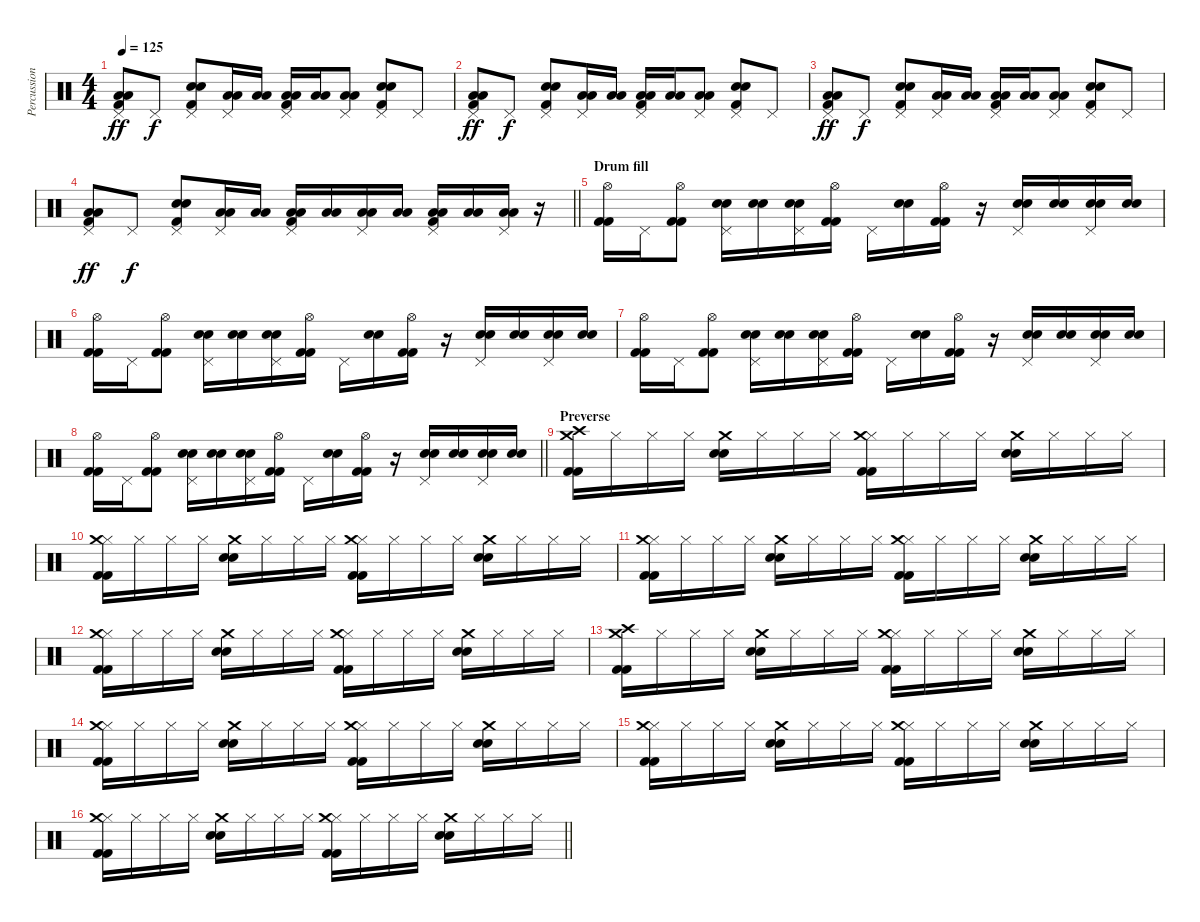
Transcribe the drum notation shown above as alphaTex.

\track ("Percussion2" "Percussion") {instrument percussion}
\staff {score}
\articulation defaults
\ts (4 4)
\tempo 125
\clef neutral
\ks c
("Pedal Hi-Hat (hit)" "Low Floor Tom (hit)" "Low Floor Tom (hit)" "Kick (hit) 2").8{dy ff} "Pedal Hi-Hat (hit)".8{dy f} ("Pedal Hi-Hat (hit)" "Electric Snare (hit)" "Electric Snare (hit)" "Kick (hit) 2").8 ("Pedal Hi-Hat (hit)" "Low Floor Tom (hit)" "Low Floor Tom (hit)").16 ("Low Tom (hit)" "Low Tom (hit)").16 ("Pedal Hi-Hat (hit)" "Low Floor Tom (hit)" "Low Floor Tom (hit)" "Kick (hit) 2").16 ("Low Floor Tom (hit)" "Low Floor Tom (hit)").16 ("Pedal Hi-Hat (hit)" "Low Floor Tom (hit)" "Low Floor Tom (hit)").8 ("Pedal Hi-Hat (hit)" "Electric Snare (hit)" "Electric Snare (hit)" "Kick (hit) 2").8 "Pedal Hi-Hat (hit)".8 |
("Pedal Hi-Hat (hit)" "Low Floor Tom (hit)" "Low Floor Tom (hit)" "Kick (hit) 2").8{dy ff} "Pedal Hi-Hat (hit)".8{dy f} ("Pedal Hi-Hat (hit)" "Electric Snare (hit)" "Electric Snare (hit)" "Kick (hit) 2").8 ("Pedal Hi-Hat (hit)" "Low Floor Tom (hit)" "Low Floor Tom (hit)").16 ("Low Tom (hit)" "Low Tom (hit)").16 ("Pedal Hi-Hat (hit)" "Low Floor Tom (hit)" "Low Floor Tom (hit)" "Kick (hit) 2").16 ("Low Floor Tom (hit)" "Low Floor Tom (hit)").16 ("Pedal Hi-Hat (hit)" "Low Floor Tom (hit)" "Low Floor Tom (hit)").8 ("Pedal Hi-Hat (hit)" "Electric Snare (hit)" "Electric Snare (hit)" "Kick (hit) 2").8 "Pedal Hi-Hat (hit)".8 |
("Pedal Hi-Hat (hit)" "Low Floor Tom (hit)" "Low Floor Tom (hit)" "Kick (hit) 2").8{dy ff} "Pedal Hi-Hat (hit)".8{dy f} ("Pedal Hi-Hat (hit)" "Electric Snare (hit)" "Electric Snare (hit)" "Kick (hit) 2").8 ("Pedal Hi-Hat (hit)" "Low Floor Tom (hit)" "Low Floor Tom (hit)").16 ("Low Tom (hit)" "Low Tom (hit)").16 ("Pedal Hi-Hat (hit)" "Low Floor Tom (hit)" "Low Floor Tom (hit)" "Kick (hit) 2").16 ("Low Floor Tom (hit)" "Low Floor Tom (hit)").16 ("Pedal Hi-Hat (hit)" "Low Floor Tom (hit)" "Low Floor Tom (hit)").8 ("Pedal Hi-Hat (hit)" "Electric Snare (hit)" "Electric Snare (hit)" "Kick (hit) 2").8 "Pedal Hi-Hat (hit)".8 |
\barLineRight lightlight
("Pedal Hi-Hat (hit)" "Low Floor Tom (hit)" "Low Floor Tom (hit)" "Kick (hit) 2").8{dy ff} "Pedal Hi-Hat (hit)".8{dy f} ("Pedal Hi-Hat (hit)" "Electric Snare (hit)" "Electric Snare (hit)" "Kick (hit) 2").8 ("Pedal Hi-Hat (hit)" "Low Floor Tom (hit)" "Low Floor Tom (hit)").16 ("Low Tom (hit)" "Low Tom (hit)").16 ("Pedal Hi-Hat (hit)" "Low Floor Tom (hit)" "Low Floor Tom (hit)" "Kick (hit) 2").16 ("Low Floor Tom (hit)" "Low Floor Tom (hit)").16 ("Pedal Hi-Hat (hit)" "Low Floor Tom (hit)" "Low Floor Tom (hit)").16 ("Low Tom (hit)" "Low Tom (hit)").16 ("Pedal Hi-Hat (hit)" "Low Floor Tom (hit)" "Low Floor Tom (hit)" "Kick (hit) 2").16 ("Low Floor Tom (hit)" "Low Floor Tom (hit)").16 ("Pedal Hi-Hat (hit)" "Low Floor Tom (hit)" "Low Floor Tom (hit)").16 r.16 |
\section ("" "Drum fill")
("Hi-Hat (open)" "Kick (hit) 2" "Kick (hit) 2").16 "Pedal Hi-Hat (hit)".16 ("Hi-Hat (open)" "Kick (hit) 2" "Kick (hit) 2").8 ("Pedal Hi-Hat (hit)" "Electric Snare (hit)" "Electric Snare (hit)").16 ("Electric Snare (hit)" "Electric Snare (hit)").16 ("Pedal Hi-Hat (hit)" "Electric Snare (hit)" "Electric Snare (hit)").16 ("Hi-Hat (open)" "Kick (hit) 2" "Kick (hit) 2").16 "Pedal Hi-Hat (hit)".16 ("Electric Snare (hit)" "Electric Snare (hit)").16 ("Hi-Hat (open)" "Kick (hit) 2" "Kick (hit) 2").16 r.16 ("Pedal Hi-Hat (hit)" "Electric Snare (hit)" "Electric Snare (hit)").16 ("Electric Snare (hit)" "Electric Snare (hit)").16 ("Pedal Hi-Hat (hit)" "Electric Snare (hit)" "Electric Snare (hit)").16 ("Electric Snare (hit)" "Electric Snare (hit)").16 |
("Hi-Hat (open)" "Kick (hit) 2" "Kick (hit) 2").16 "Pedal Hi-Hat (hit)".16 ("Hi-Hat (open)" "Kick (hit) 2" "Kick (hit) 2").8 ("Pedal Hi-Hat (hit)" "Electric Snare (hit)" "Electric Snare (hit)").16 ("Electric Snare (hit)" "Electric Snare (hit)").16 ("Pedal Hi-Hat (hit)" "Electric Snare (hit)" "Electric Snare (hit)").16 ("Hi-Hat (open)" "Kick (hit) 2" "Kick (hit) 2").16 "Pedal Hi-Hat (hit)".16 ("Electric Snare (hit)" "Electric Snare (hit)").16 ("Hi-Hat (open)" "Kick (hit) 2" "Kick (hit) 2").16 r.16 ("Pedal Hi-Hat (hit)" "Electric Snare (hit)" "Electric Snare (hit)").16 ("Electric Snare (hit)" "Electric Snare (hit)").16 ("Pedal Hi-Hat (hit)" "Electric Snare (hit)" "Electric Snare (hit)").16 ("Electric Snare (hit)" "Electric Snare (hit)").16 |
("Hi-Hat (open)" "Kick (hit) 2" "Kick (hit) 2").16 "Pedal Hi-Hat (hit)".16 ("Hi-Hat (open)" "Kick (hit) 2" "Kick (hit) 2").8 ("Pedal Hi-Hat (hit)" "Electric Snare (hit)" "Electric Snare (hit)").16 ("Electric Snare (hit)" "Electric Snare (hit)").16 ("Pedal Hi-Hat (hit)" "Electric Snare (hit)" "Electric Snare (hit)").16 ("Hi-Hat (open)" "Kick (hit) 2" "Kick (hit) 2").16 "Pedal Hi-Hat (hit)".16 ("Electric Snare (hit)" "Electric Snare (hit)").16 ("Hi-Hat (open)" "Kick (hit) 2" "Kick (hit) 2").16 r.16 ("Pedal Hi-Hat (hit)" "Electric Snare (hit)" "Electric Snare (hit)").16 ("Electric Snare (hit)" "Electric Snare (hit)").16 ("Pedal Hi-Hat (hit)" "Electric Snare (hit)" "Electric Snare (hit)").16 ("Electric Snare (hit)" "Electric Snare (hit)").16 |
\barLineRight lightlight
("Hi-Hat (open)" "Kick (hit) 2" "Kick (hit) 2").16 "Pedal Hi-Hat (hit)".16 ("Hi-Hat (open)" "Kick (hit) 2" "Kick (hit) 2").8 ("Pedal Hi-Hat (hit)" "Electric Snare (hit)" "Electric Snare (hit)").16 ("Electric Snare (hit)" "Electric Snare (hit)").16 ("Pedal Hi-Hat (hit)" "Electric Snare (hit)" "Electric Snare (hit)").16 ("Hi-Hat (open)" "Kick (hit) 2" "Kick (hit) 2").16 "Pedal Hi-Hat (hit)".16 ("Electric Snare (hit)" "Electric Snare (hit)").16 ("Hi-Hat (open)" "Kick (hit) 2" "Kick (hit) 2").16 r.16 ("Pedal Hi-Hat (hit)" "Electric Snare (hit)" "Electric Snare (hit)").16 ("Electric Snare (hit)" "Electric Snare (hit)").16 ("Pedal Hi-Hat (hit)" "Electric Snare (hit)" "Electric Snare (hit)").16 ("Electric Snare (hit)" "Electric Snare (hit)").16 |
\section ("" "Preverse")
("Crash high (hit)" "Crash medium (hit)" "Kick (hit) 2" "Kick (hit) 2").16 "Hi-Hat (closed)".16 "Hi-Hat (closed)".16 "Hi-Hat (closed)".16 ("Crash medium (hit)" "Electric Snare (hit)" "Electric Snare (hit)").16 "Hi-Hat (closed)".16 "Hi-Hat (closed)".16 "Hi-Hat (closed)".16 ("Hi-Hat (closed)" "Crash medium (hit)" "Kick (hit) 2" "Kick (hit) 2").16 "Hi-Hat (closed)".16 "Hi-Hat (closed)".16 "Hi-Hat (closed)".16 ("Crash medium (hit)" "Electric Snare (hit)" "Electric Snare (hit)").16 "Hi-Hat (closed)".16 "Hi-Hat (closed)".16 "Hi-Hat (closed)".16 |
("Hi-Hat (closed)" "Crash medium (hit)" "Kick (hit) 2" "Kick (hit) 2").16 "Hi-Hat (closed)".16 "Hi-Hat (closed)".16 "Hi-Hat (closed)".16 ("Crash medium (hit)" "Electric Snare (hit)" "Electric Snare (hit)").16 "Hi-Hat (closed)".16 "Hi-Hat (closed)".16 "Hi-Hat (closed)".16 ("Hi-Hat (closed)" "Crash medium (hit)" "Kick (hit) 2" "Kick (hit) 2").16 "Hi-Hat (closed)".16 "Hi-Hat (closed)".16 "Hi-Hat (closed)".16 ("Crash medium (hit)" "Electric Snare (hit)" "Electric Snare (hit)").16 "Hi-Hat (closed)".16 "Hi-Hat (closed)".16 "Hi-Hat (closed)".16 |
("Hi-Hat (closed)" "Crash medium (hit)" "Kick (hit) 2" "Kick (hit) 2").16 "Hi-Hat (closed)".16 "Hi-Hat (closed)".16 "Hi-Hat (closed)".16 ("Crash medium (hit)" "Electric Snare (hit)" "Electric Snare (hit)").16 "Hi-Hat (closed)".16 "Hi-Hat (closed)".16 "Hi-Hat (closed)".16 ("Hi-Hat (closed)" "Crash medium (hit)" "Kick (hit) 2" "Kick (hit) 2").16 "Hi-Hat (closed)".16 "Hi-Hat (closed)".16 "Hi-Hat (closed)".16 ("Crash medium (hit)" "Electric Snare (hit)" "Electric Snare (hit)").16 "Hi-Hat (closed)".16 "Hi-Hat (closed)".16 "Hi-Hat (closed)".16 |
("Hi-Hat (closed)" "Crash medium (hit)" "Kick (hit) 2" "Kick (hit) 2").16 "Hi-Hat (closed)".16 "Hi-Hat (closed)".16 "Hi-Hat (closed)".16 ("Crash medium (hit)" "Electric Snare (hit)" "Electric Snare (hit)").16 "Hi-Hat (closed)".16 "Hi-Hat (closed)".16 "Hi-Hat (closed)".16 ("Hi-Hat (closed)" "Crash medium (hit)" "Kick (hit) 2" "Kick (hit) 2").16 "Hi-Hat (closed)".16 "Hi-Hat (closed)".16 "Hi-Hat (closed)".16 ("Crash medium (hit)" "Electric Snare (hit)" "Electric Snare (hit)").16 "Hi-Hat (closed)".16 "Hi-Hat (closed)".16 "Hi-Hat (closed)".16 |
("Crash high (hit)" "Crash medium (hit)" "Kick (hit) 2" "Kick (hit) 2").16 "Hi-Hat (closed)".16 "Hi-Hat (closed)".16 "Hi-Hat (closed)".16 ("Crash medium (hit)" "Electric Snare (hit)" "Electric Snare (hit)").16 "Hi-Hat (closed)".16 "Hi-Hat (closed)".16 "Hi-Hat (closed)".16 ("Hi-Hat (closed)" "Crash medium (hit)" "Kick (hit) 2" "Kick (hit) 2").16 "Hi-Hat (closed)".16 "Hi-Hat (closed)".16 "Hi-Hat (closed)".16 ("Crash medium (hit)" "Electric Snare (hit)" "Electric Snare (hit)").16 "Hi-Hat (closed)".16 "Hi-Hat (closed)".16 "Hi-Hat (closed)".16 |
("Hi-Hat (closed)" "Crash medium (hit)" "Kick (hit) 2" "Kick (hit) 2").16 "Hi-Hat (closed)".16 "Hi-Hat (closed)".16 "Hi-Hat (closed)".16 ("Crash medium (hit)" "Electric Snare (hit)" "Electric Snare (hit)").16 "Hi-Hat (closed)".16 "Hi-Hat (closed)".16 "Hi-Hat (closed)".16 ("Hi-Hat (closed)" "Crash medium (hit)" "Kick (hit) 2" "Kick (hit) 2").16 "Hi-Hat (closed)".16 "Hi-Hat (closed)".16 "Hi-Hat (closed)".16 ("Crash medium (hit)" "Electric Snare (hit)" "Electric Snare (hit)").16 "Hi-Hat (closed)".16 "Hi-Hat (closed)".16 "Hi-Hat (closed)".16 |
("Hi-Hat (closed)" "Crash medium (hit)" "Kick (hit) 2" "Kick (hit) 2").16 "Hi-Hat (closed)".16 "Hi-Hat (closed)".16 "Hi-Hat (closed)".16 ("Crash medium (hit)" "Electric Snare (hit)" "Electric Snare (hit)").16 "Hi-Hat (closed)".16 "Hi-Hat (closed)".16 "Hi-Hat (closed)".16 ("Hi-Hat (closed)" "Crash medium (hit)" "Kick (hit) 2" "Kick (hit) 2").16 "Hi-Hat (closed)".16 "Hi-Hat (closed)".16 "Hi-Hat (closed)".16 ("Crash medium (hit)" "Electric Snare (hit)" "Electric Snare (hit)").16 "Hi-Hat (closed)".16 "Hi-Hat (closed)".16 "Hi-Hat (closed)".16 |
\barLineRight lightlight
("Hi-Hat (closed)" "Crash medium (hit)" "Kick (hit) 2" "Kick (hit) 2").16 "Hi-Hat (closed)".16 "Hi-Hat (closed)".16 "Hi-Hat (closed)".16 ("Crash medium (hit)" "Electric Snare (hit)" "Electric Snare (hit)").16 "Hi-Hat (closed)".16 "Hi-Hat (closed)".16 "Hi-Hat (closed)".16 ("Hi-Hat (closed)" "Crash medium (hit)" "Kick (hit) 2" "Kick (hit) 2").16 "Hi-Hat (closed)".16 "Hi-Hat (closed)".16 "Hi-Hat (closed)".16 ("Crash medium (hit)" "Electric Snare (hit)" "Electric Snare (hit)").16 "Hi-Hat (closed)".16 "Hi-Hat (closed)".16 "Hi-Hat (closed)".16
